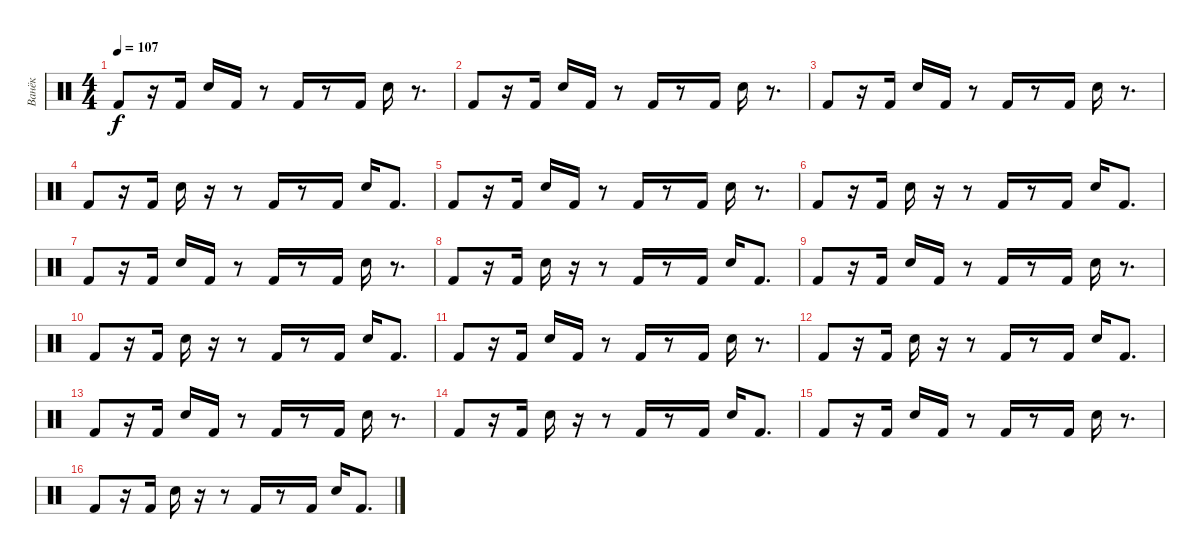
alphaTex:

\track ("Ванёк" "Ванёк") {instrument percussion}
\staff {score}
\articulation defaults
\ts (4 4)
\tempo 107
\clef neutral
\ks c "Kick (hit) 2".8{dy f}
r.16 "Kick (hit) 2".16 "Snare (hit) 2".16 "Kick (hit) 2".16 r.8 "Kick (hit) 2".16 r.8 "Kick (hit) 2".16 "Snare (hit) 2".16 r.8{d} |
"Kick (hit) 2".8 r.16 "Kick (hit) 2".16 "Snare (hit) 2".16 "Kick (hit) 2".16 r.8 "Kick (hit) 2".16 r.8 "Kick (hit) 2".16 "Snare (hit) 2".16 r.8{d} |
"Kick (hit) 2".8 r.16 "Kick (hit) 2".16 "Snare (hit) 2".16 "Kick (hit) 2".16 r.8 "Kick (hit) 2".16 r.8 "Kick (hit) 2".16 "Snare (hit) 2".16 r.8{d} |
"Kick (hit) 2".8 r.16 "Kick (hit) 2".16 "Snare (hit) 2".16 r.16 r.8 "Kick (hit) 2".16 r.8 "Kick (hit) 2".16 "Snare (hit) 2".16 "Kick (hit) 2".8{d} |
"Kick (hit) 2".8 r.16 "Kick (hit) 2".16 "Snare (hit) 2".16 "Kick (hit) 2".16 r.8 "Kick (hit) 2".16 r.8 "Kick (hit) 2".16 "Snare (hit) 2".16 r.8{d} |
"Kick (hit) 2".8 r.16 "Kick (hit) 2".16 "Snare (hit) 2".16 r.16 r.8 "Kick (hit) 2".16 r.8 "Kick (hit) 2".16 "Snare (hit) 2".16 "Kick (hit) 2".8{d} |
"Kick (hit) 2".8 r.16 "Kick (hit) 2".16 "Snare (hit) 2".16 "Kick (hit) 2".16 r.8 "Kick (hit) 2".16 r.8 "Kick (hit) 2".16 "Snare (hit) 2".16 r.8{d} |
"Kick (hit) 2".8 r.16 "Kick (hit) 2".16 "Snare (hit) 2".16 r.16 r.8 "Kick (hit) 2".16 r.8 "Kick (hit) 2".16 "Snare (hit) 2".16 "Kick (hit) 2".8{d} |
"Kick (hit) 2".8 r.16 "Kick (hit) 2".16 "Snare (hit) 2".16 "Kick (hit) 2".16 r.8 "Kick (hit) 2".16 r.8 "Kick (hit) 2".16 "Snare (hit) 2".16 r.8{d} |
"Kick (hit) 2".8 r.16 "Kick (hit) 2".16 "Snare (hit) 2".16 r.16 r.8 "Kick (hit) 2".16 r.8 "Kick (hit) 2".16 "Snare (hit) 2".16 "Kick (hit) 2".8{d} |
"Kick (hit) 2".8 r.16 "Kick (hit) 2".16 "Snare (hit) 2".16 "Kick (hit) 2".16 r.8 "Kick (hit) 2".16 r.8 "Kick (hit) 2".16 "Snare (hit) 2".16 r.8{d} |
"Kick (hit) 2".8 r.16 "Kick (hit) 2".16 "Snare (hit) 2".16 r.16 r.8 "Kick (hit) 2".16 r.8 "Kick (hit) 2".16 "Snare (hit) 2".16 "Kick (hit) 2".8{d} |
"Kick (hit) 2".8 r.16 "Kick (hit) 2".16 "Snare (hit) 2".16 "Kick (hit) 2".16 r.8 "Kick (hit) 2".16 r.8 "Kick (hit) 2".16 "Snare (hit) 2".16 r.8{d} |
"Kick (hit) 2".8 r.16 "Kick (hit) 2".16 "Snare (hit) 2".16 r.16 r.8 "Kick (hit) 2".16 r.8 "Kick (hit) 2".16 "Snare (hit) 2".16 "Kick (hit) 2".8{d} |
"Kick (hit) 2".8 r.16 "Kick (hit) 2".16 "Snare (hit) 2".16 "Kick (hit) 2".16 r.8 "Kick (hit) 2".16 r.8 "Kick (hit) 2".16 "Snare (hit) 2".16 r.8{d} |
"Kick (hit) 2".8 r.16 "Kick (hit) 2".16 "Snare (hit) 2".16 r.16 r.8 "Kick (hit) 2".16 r.8 "Kick (hit) 2".16 "Snare (hit) 2".16 "Kick (hit) 2".8{d}
